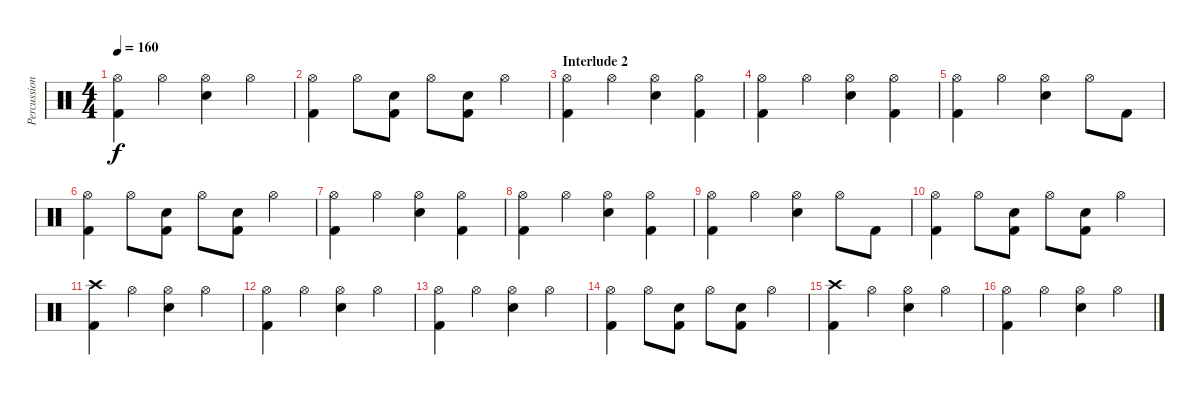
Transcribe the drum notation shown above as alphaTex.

\track ("Percussion" "Percussion") {instrument percussion}
\staff {score}
\articulation defaults
\ts (4 4)
\tempo 160
\clef neutral
\ks c
("Hi-Hat (open)" "Kick (hit) 2").4{dy f} "Hi-Hat (open)".4 ("Hi-Hat (open)" "Electric Snare (hit)").4 "Hi-Hat (open)".4 |
("Hi-Hat (open)" "Kick (hit) 2").4 "Hi-Hat (open)".8 ("Electric Snare (hit)" "Kick (hit) 2").8 "Hi-Hat (open)".8 ("Electric Snare (hit)" "Kick (hit) 2").8 "Hi-Hat (open)".4 |
\section ("" "Interlude 2")
("Hi-Hat (open)" "Kick (hit) 2").4 "Hi-Hat (open)".4 ("Hi-Hat (open)" "Electric Snare (hit)").4 ("Hi-Hat (open)" "Kick (hit) 2").4 |
("Hi-Hat (open)" "Kick (hit) 2").4 "Hi-Hat (open)".4 ("Hi-Hat (open)" "Electric Snare (hit)").4 ("Hi-Hat (open)" "Kick (hit) 2").4 |
("Hi-Hat (open)" "Kick (hit) 2").4 "Hi-Hat (open)".4 ("Hi-Hat (open)" "Electric Snare (hit)").4 "Hi-Hat (open)".8 "Kick (hit) 2".8 |
("Hi-Hat (open)" "Kick (hit) 2").4 "Hi-Hat (open)".8 ("Electric Snare (hit)" "Kick (hit) 2").8 "Hi-Hat (open)".8 ("Electric Snare (hit)" "Kick (hit) 2").8 "Hi-Hat (open)".4 |
("Hi-Hat (open)" "Kick (hit) 2").4 "Hi-Hat (open)".4 ("Hi-Hat (open)" "Electric Snare (hit)").4 ("Hi-Hat (open)" "Kick (hit) 2").4 |
("Hi-Hat (open)" "Kick (hit) 2").4 "Hi-Hat (open)".4 ("Hi-Hat (open)" "Electric Snare (hit)").4 ("Hi-Hat (open)" "Kick (hit) 2").4 |
("Hi-Hat (open)" "Kick (hit) 2").4 "Hi-Hat (open)".4 ("Hi-Hat (open)" "Electric Snare (hit)").4 "Hi-Hat (open)".8 "Kick (hit) 2".8 |
("Hi-Hat (open)" "Kick (hit) 2").4 "Hi-Hat (open)".8 ("Electric Snare (hit)" "Kick (hit) 2").8 "Hi-Hat (open)".8 ("Electric Snare (hit)" "Kick (hit) 2").8 "Hi-Hat (open)".4 |
("Crash high (hit)" "Kick (hit) 2").4 "Hi-Hat (open)".4 ("Hi-Hat (open)" "Electric Snare (hit)").4 "Hi-Hat (open)".4 |
("Hi-Hat (open)" "Kick (hit) 2").4 "Hi-Hat (open)".4 ("Hi-Hat (open)" "Electric Snare (hit)").4 "Hi-Hat (open)".4 |
("Hi-Hat (open)" "Kick (hit) 2").4 "Hi-Hat (open)".4 ("Hi-Hat (open)" "Electric Snare (hit)").4 "Hi-Hat (open)".4 |
("Hi-Hat (open)" "Kick (hit) 2").4 "Hi-Hat (open)".8 ("Electric Snare (hit)" "Kick (hit) 2").8 "Hi-Hat (open)".8 ("Electric Snare (hit)" "Kick (hit) 2").8 "Hi-Hat (open)".4 |
("Crash high (hit)" "Kick (hit) 2").4 "Hi-Hat (open)".4 ("Hi-Hat (open)" "Electric Snare (hit)").4 "Hi-Hat (open)".4 |
("Hi-Hat (open)" "Kick (hit) 2").4 "Hi-Hat (open)".4 ("Hi-Hat (open)" "Electric Snare (hit)").4 "Hi-Hat (open)".4
